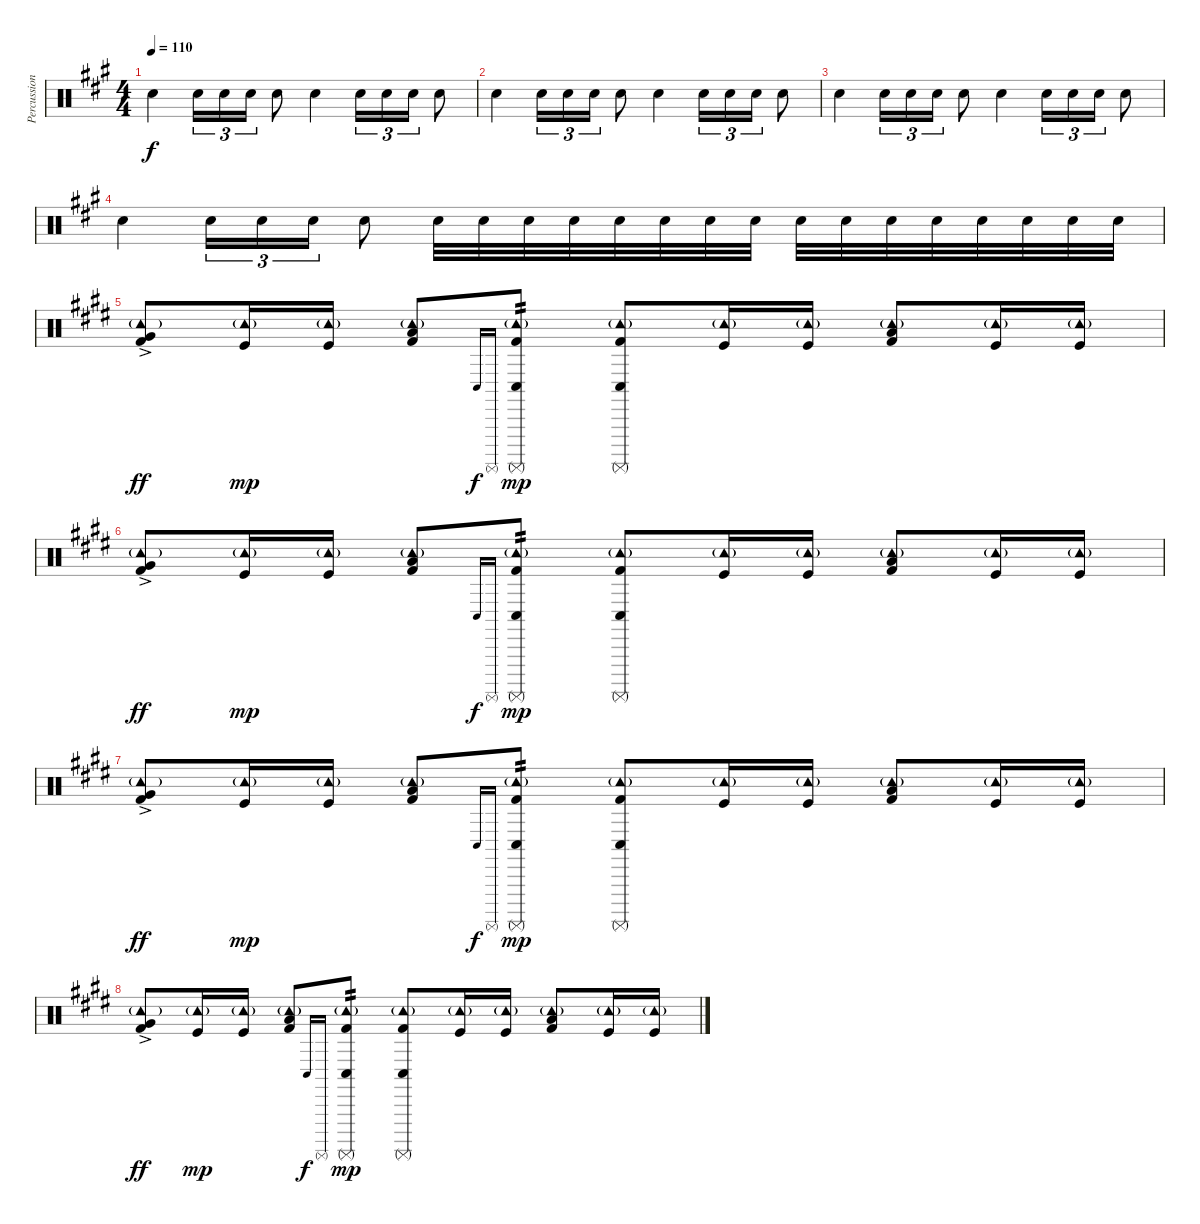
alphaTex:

\track ("Percussion" "Percussion") {instrument percussion}
\staff {score}
\articulation defaults
\ts (4 4)
\tempo 110
\clef neutral
\ks f#minor "Snare (hit) 2".4{dy f} "Snare (hit) 2".16{tu (3 2)} "Snare (hit) 2".16{tu (3 2)} "Snare (hit) 2".16{tu (3 2)} "Snare (hit) 2".8 "Snare (hit) 2".4 "Snare (hit) 2".16{tu (3 2)} "Snare (hit) 2".16{tu (3 2)} "Snare (hit) 2".16{tu (3 2)} "Snare (hit) 2".8
|
"Snare (hit) 2".4 "Snare (hit) 2".16{tu (3 2)} "Snare (hit) 2".16{tu (3 2)} "Snare (hit) 2".16{tu (3 2)} "Snare (hit) 2".8 "Snare (hit) 2".4 "Snare (hit) 2".16{tu (3 2)} "Snare (hit) 2".16{tu (3 2)} "Snare (hit) 2".16{tu (3 2)} "Snare (hit) 2".8 |
"Snare (hit) 2".4 "Snare (hit) 2".16{tu (3 2)} "Snare (hit) 2".16{tu (3 2)} "Snare (hit) 2".16{tu (3 2)} "Snare (hit) 2".8 "Snare (hit) 2".4 "Snare (hit) 2".16{tu (3 2)} "Snare (hit) 2".16{tu (3 2)} "Snare (hit) 2".16{tu (3 2)} "Snare (hit) 2".8 |
"Snare (hit) 2".4 "Snare (hit) 2".16{tu (3 2)} "Snare (hit) 2".16{tu (3 2)} "Snare (hit) 2".16{tu (3 2)} "Snare (hit) 2".8 "Snare (hit) 2".32 "Snare (hit) 2".32 "Snare (hit) 2".32 "Snare (hit) 2".32 "Snare (hit) 2".32 "Snare (hit) 2".32 "Snare (hit) 2".32 "Snare (hit) 2".32 "Snare (hit) 2".32 "Snare (hit) 2".32 "Snare (hit) 2".32 "Snare (hit) 2".32 "Snare (hit) 2".32 "Snare (hit) 2".32 "Snare (hit) 2".32 "Snare (hit) 2".32 |
\ks e
("Tambourine (hit)"{g} "Very Low Tom (hit)"{ac} "Kick (hit) 2").8{dy ff} ("Tambourine (hit)"{g} "Kick (hit)").16{dy mp} ("Tambourine (hit)"{g} "Kick (hit)").16 ("Tambourine (hit)"{g} "Low Floor Tom (hit)" "Kick (hit) 2").8 "Conga low (hit)".16{gr onbeat dy f} "Surdo (mute)".16{gr onbeat} ("Tambourine (hit)"{g} "Conga low (hit)" "Surdo (mute)" "Kick (hit) 2").8{tp 2 dy mp} ("Tambourine (hit)"{g} "Conga low (hit)" "Surdo (mute)" "Kick (hit) 2").8 ("Tambourine (hit)"{g} "Kick (hit)").16 ("Tambourine (hit)"{g} "Kick (hit)").16 ("Tambourine (hit)"{g} "Low Floor Tom (hit)" "Kick (hit) 2").8 ("Tambourine (hit)"{g} "Kick (hit)").16 ("Tambourine (hit)"{g} "Kick (hit)").16 |
("Tambourine (hit)"{g} "Very Low Tom (hit)"{ac} "Kick (hit) 2").8{dy ff} ("Tambourine (hit)"{g} "Kick (hit)").16{dy mp} ("Tambourine (hit)"{g} "Kick (hit)").16 ("Tambourine (hit)"{g} "Low Floor Tom (hit)" "Kick (hit) 2").8 "Conga low (hit)".16{gr onbeat dy f} "Surdo (mute)".16{gr onbeat} ("Tambourine (hit)"{g} "Conga low (hit)" "Surdo (mute)" "Kick (hit) 2").8{tp 2 dy mp} ("Tambourine (hit)"{g} "Conga low (hit)" "Surdo (mute)" "Kick (hit) 2").8 ("Tambourine (hit)"{g} "Kick (hit)").16 ("Tambourine (hit)"{g} "Kick (hit)").16 ("Tambourine (hit)"{g} "Low Floor Tom (hit)" "Kick (hit) 2").8 ("Tambourine (hit)"{g} "Kick (hit)").16 ("Tambourine (hit)"{g} "Kick (hit)").16 |
("Tambourine (hit)"{g} "Very Low Tom (hit)"{ac} "Kick (hit) 2").8{dy ff} ("Tambourine (hit)"{g} "Kick (hit)").16{dy mp} ("Tambourine (hit)"{g} "Kick (hit)").16 ("Tambourine (hit)"{g} "Low Floor Tom (hit)" "Kick (hit) 2").8 "Conga low (hit)".16{gr onbeat dy f} "Surdo (mute)".16{gr onbeat} ("Tambourine (hit)"{g} "Conga low (hit)" "Surdo (mute)" "Kick (hit) 2").8{tp 2 dy mp} ("Tambourine (hit)"{g} "Conga low (hit)" "Surdo (mute)" "Kick (hit) 2").8 ("Tambourine (hit)"{g} "Kick (hit)").16 ("Tambourine (hit)"{g} "Kick (hit)").16 ("Tambourine (hit)"{g} "Low Floor Tom (hit)" "Kick (hit) 2").8 ("Tambourine (hit)"{g} "Kick (hit)").16 ("Tambourine (hit)"{g} "Kick (hit)").16 |
("Tambourine (hit)"{g} "Very Low Tom (hit)"{ac} "Kick (hit) 2").8{dy ff} ("Tambourine (hit)"{g} "Kick (hit)").16{dy mp} ("Tambourine (hit)"{g} "Kick (hit)").16 ("Tambourine (hit)"{g} "Low Floor Tom (hit)" "Kick (hit) 2").8 "Conga low (hit)".16{gr onbeat dy f} "Surdo (mute)".16{gr onbeat} ("Tambourine (hit)"{g} "Conga low (hit)" "Surdo (mute)" "Kick (hit) 2").8{tp 2 dy mp} ("Tambourine (hit)"{g} "Conga low (hit)" "Surdo (mute)" "Kick (hit) 2").8 ("Tambourine (hit)"{g} "Kick (hit)").16 ("Tambourine (hit)"{g} "Kick (hit)").16 ("Tambourine (hit)"{g} "Low Floor Tom (hit)" "Kick (hit) 2").8 ("Tambourine (hit)"{g} "Kick (hit)").16 ("Tambourine (hit)"{g} "Kick (hit)").16
